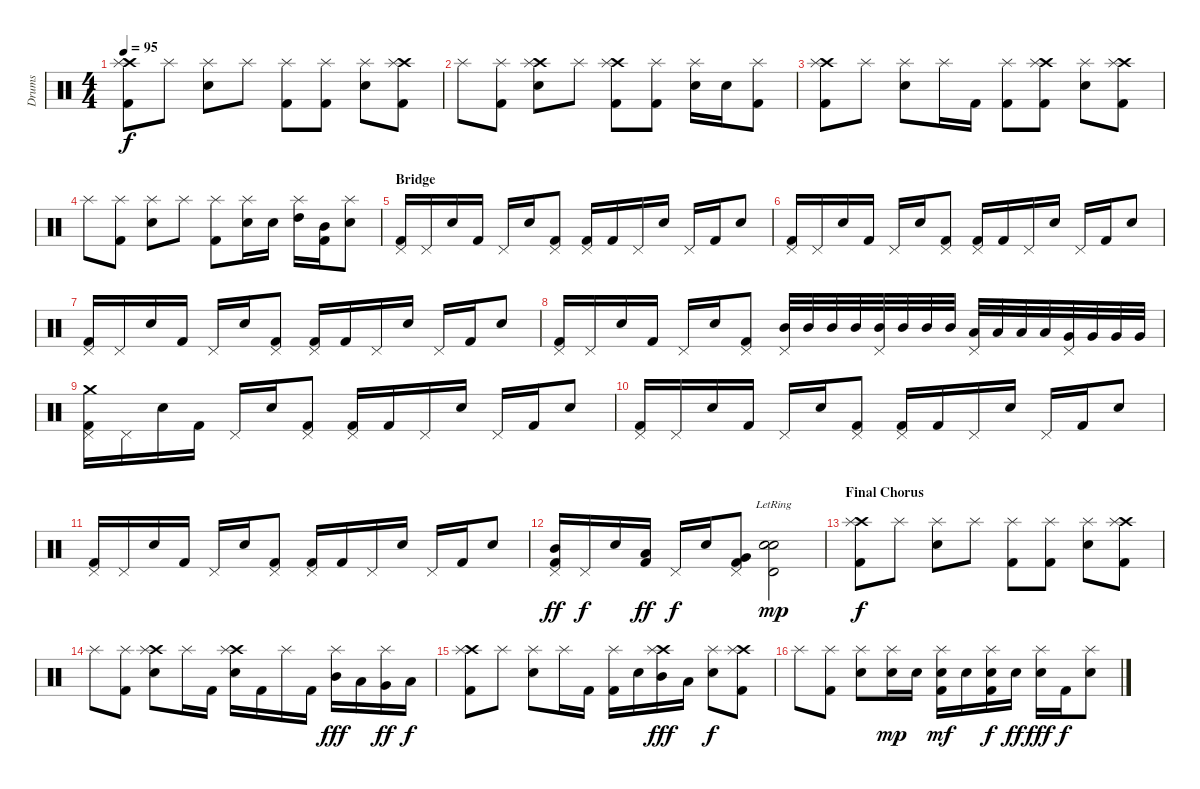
\track ("Drums" "Drums") {instrument percussion}
\staff {score}
\articulation defaults
\ts (4 4)
\tempo 95
\clef neutral
\ks c
("Crash high (hit)" "Splash (hit)" "Kick (hit) 2").8{dy f} "Splash (hit)".8 ("Splash (hit)" "Electric Snare (hit)").8 "Splash (hit)".8 ("Splash (hit)" "Kick (hit) 2").8 ("Splash (hit)" "Kick (hit) 2").8 ("Splash (hit)" "Electric Snare (hit)").8 ("Crash high (hit)" "Splash (hit)" "Kick (hit) 2").8 |
"Splash (hit)".8 ("Splash (hit)" "Kick (hit) 2").8 ("Crash high (hit)" "Splash (hit)" "Electric Snare (hit)").8 "Splash (hit)".8 ("Crash high (hit)" "Splash (hit)" "Kick (hit) 2").8 ("Splash (hit)" "Kick (hit) 2").8 ("Splash (hit)" "Electric Snare (hit)").16 "Electric Snare (hit)".16 ("Splash (hit)" "Kick (hit) 2").8 |
("Crash high (hit)" "Splash (hit)" "Kick (hit) 2").8 "Splash (hit)".8 ("Splash (hit)" "Electric Snare (hit)").8 "Splash (hit)".16 "Kick (hit) 2".16 ("Splash (hit)" "Kick (hit) 2").8 ("Crash high (hit)" "Splash (hit)" "Kick (hit) 2").8 ("Splash (hit)" "Electric Snare (hit)").8 ("Crash high (hit)" "Splash (hit)" "Kick (hit) 2").8 |
"Splash (hit)".8 ("Splash (hit)" "Kick (hit) 2").8 ("Splash (hit)" "Electric Snare (hit)").8 "Splash (hit)".8 ("Splash (hit)" "Kick (hit) 2").8 ("Splash (hit)" "Electric Snare (hit)").16 "Electric Snare (hit)".16 ("Splash (hit)" "High Tom (hit)").16 ("Mid Tom (hit)" "Kick (hit) 2").16 ("Splash (hit)" "Electric Snare (hit)").8 |
\section ("" "Bridge")
("Pedal Hi-Hat (hit)" "Kick (hit) 2").16 "Pedal Hi-Hat (hit)".16 "Electric Snare (hit)".16 "Kick (hit) 2".16 "Pedal Hi-Hat (hit)".16 "Electric Snare (hit)".16 ("Pedal Hi-Hat (hit)" "Kick (hit) 2").8 ("Pedal Hi-Hat (hit)" "Kick (hit) 2").16 "Kick (hit) 2".16 "Pedal Hi-Hat (hit)".16 "Electric Snare (hit)".16 "Pedal Hi-Hat (hit)".16 "Kick (hit) 2".16 "Electric Snare (hit)".8 |
("Pedal Hi-Hat (hit)" "Kick (hit) 2").16 "Pedal Hi-Hat (hit)".16 "Electric Snare (hit)".16 "Kick (hit) 2".16 "Pedal Hi-Hat (hit)".16 "Electric Snare (hit)".16 ("Pedal Hi-Hat (hit)" "Kick (hit) 2").8 ("Pedal Hi-Hat (hit)" "Kick (hit) 2").16 "Kick (hit) 2".16 "Pedal Hi-Hat (hit)".16 "Electric Snare (hit)".16 "Pedal Hi-Hat (hit)".16 "Kick (hit) 2".16 "Electric Snare (hit)".8 |
("Pedal Hi-Hat (hit)" "Kick (hit) 2").16 "Pedal Hi-Hat (hit)".16 "Electric Snare (hit)".16 "Kick (hit) 2".16 "Pedal Hi-Hat (hit)".16 "Electric Snare (hit)".16 ("Pedal Hi-Hat (hit)" "Kick (hit) 2").8 ("Pedal Hi-Hat (hit)" "Kick (hit) 2").16 "Kick (hit) 2".16 "Pedal Hi-Hat (hit)".16 "Electric Snare (hit)".16 "Pedal Hi-Hat (hit)".16 "Kick (hit) 2".16 "Electric Snare (hit)".8 |
("Pedal Hi-Hat (hit)" "Kick (hit) 2").16 "Pedal Hi-Hat (hit)".16 "Electric Snare (hit)".16 "Kick (hit) 2".16 "Pedal Hi-Hat (hit)".16 "Electric Snare (hit)".16 ("Pedal Hi-Hat (hit)" "Kick (hit) 2").8 ("Pedal Hi-Hat (hit)" "Mid Tom (hit)").32 "Mid Tom (hit)".32 "Mid Tom (hit)".32 "Mid Tom (hit)".32 ("Pedal Hi-Hat (hit)" "Mid Tom (hit)").32 "Mid Tom (hit)".32 "Mid Tom (hit)".32 "Mid Tom (hit)".32 ("Pedal Hi-Hat (hit)" "Low Tom (hit)").32 "Low Tom (hit)".32 "Low Tom (hit)".32 "Low Tom (hit)".32 ("Pedal Hi-Hat (hit)" "Very Low Tom (hit)").32 "Very Low Tom (hit)".32 "Very Low Tom (hit)".32 "Very Low Tom (hit)".32 |
("Crash medium (hit)" "Pedal Hi-Hat (hit)" "Kick (hit) 2").16 "Pedal Hi-Hat (hit)".16 "Electric Snare (hit)".16 "Kick (hit) 2".16 "Pedal Hi-Hat (hit)".16 "Electric Snare (hit)".16 ("Pedal Hi-Hat (hit)" "Kick (hit) 2").8 ("Pedal Hi-Hat (hit)" "Kick (hit) 2").16 "Kick (hit) 2".16 "Pedal Hi-Hat (hit)".16 "Electric Snare (hit)".16 "Pedal Hi-Hat (hit)".16 "Kick (hit) 2".16 "Electric Snare (hit)".8 |
("Pedal Hi-Hat (hit)" "Kick (hit) 2").16 "Pedal Hi-Hat (hit)".16 "Electric Snare (hit)".16 "Kick (hit) 2".16 "Pedal Hi-Hat (hit)".16 "Electric Snare (hit)".16 ("Pedal Hi-Hat (hit)" "Kick (hit) 2").8 ("Pedal Hi-Hat (hit)" "Kick (hit) 2").16 "Kick (hit) 2".16 "Pedal Hi-Hat (hit)".16 "Electric Snare (hit)".16 "Pedal Hi-Hat (hit)".16 "Kick (hit) 2".16 "Electric Snare (hit)".8 |
("Pedal Hi-Hat (hit)" "Kick (hit) 2").16 "Pedal Hi-Hat (hit)".16 "Electric Snare (hit)".16 "Kick (hit) 2".16 "Pedal Hi-Hat (hit)".16 "Electric Snare (hit)".16 ("Pedal Hi-Hat (hit)" "Kick (hit) 2").8 ("Pedal Hi-Hat (hit)" "Kick (hit) 2").16 "Kick (hit) 2".16 "Pedal Hi-Hat (hit)".16 "Electric Snare (hit)".16 "Pedal Hi-Hat (hit)".16 "Kick (hit) 2".16 "Electric Snare (hit)".8 |
("Pedal Hi-Hat (hit)" "Mid Tom (hit)" "Kick (hit) 2").16{dy ff} "Pedal Hi-Hat (hit)".16{dy f} "Electric Snare (hit)".16 ("Low Tom (hit)" "Kick (hit) 2").16{dy ff} "Pedal Hi-Hat (hit)".16{dy f} "Electric Snare (hit)".16 ("Pedal Hi-Hat (hit)" "Very Low Tom (hit)" "Kick (hit) 2").8 ("Electric Snare (hit)"{lr} "Timbale high (hit)"{lr} "Snare (hit) 2"{lr}).2{dy mp} |
\section ("" "Final Chorus")
("Crash high (hit)" "Splash (hit)" "Kick (hit) 2").8{dy f} "Splash (hit)".8 ("Splash (hit)" "Electric Snare (hit)").8 "Splash (hit)".8 ("Splash (hit)" "Kick (hit) 2").8 ("Splash (hit)" "Kick (hit) 2").8 ("Splash (hit)" "Electric Snare (hit)").8 ("Crash high (hit)" "Splash (hit)" "Kick (hit) 2").8 |
"Splash (hit)".8 ("Splash (hit)" "Kick (hit) 2").8 ("Crash high (hit)" "Splash (hit)" "Electric Snare (hit)").8 "Splash (hit)".16 "Kick (hit) 2".16 ("Crash high (hit)" "Splash (hit)" "Electric Snare (hit)").16 "Kick (hit) 2".16 "Splash (hit)".16 "Kick (hit) 2".16 ("Splash (hit)" "Mid Tom (hit)").16{dy fff} "Low Tom (hit)".16 ("Splash (hit)" "Very Low Tom (hit)").16{dy ff} "Low Floor Tom (hit)".16{dy f} |
("Crash high (hit)" "Splash (hit)" "Kick (hit) 2").8 "Splash (hit)".8 ("Splash (hit)" "Electric Snare (hit)").8 "Splash (hit)".16 "Kick (hit) 2".16 ("Splash (hit)" "Kick (hit) 2").16 "Electric Snare (hit)".16 ("Crash high (hit)" "Splash (hit)" "Mid Tom (hit)").16{dy fff} "Low Tom (hit)".16 ("Splash (hit)" "Electric Snare (hit)").8{dy f} ("Crash high (hit)" "Splash (hit)" "Kick (hit) 2").8 |
"Splash (hit)".8 ("Splash (hit)" "Kick (hit) 2").8 ("Splash (hit)" "Electric Snare (hit)").8 ("Splash (hit)" "Electric Snare (hit)").16{dy mp} "Electric Snare (hit)".16 ("Splash (hit)" "Electric Snare (hit)" "Kick (hit) 2").16{dy mf} "Electric Snare (hit)".16 ("Splash (hit)" "Electric Snare (hit)" "Kick (hit) 2").16{dy f} "Electric Snare (hit)".16{dy ff} ("Splash (hit)" "Electric Snare (hit)").16{dy fff} "Kick (hit) 2".16{dy f} ("Splash (hit)" "Electric Snare (hit)").8
